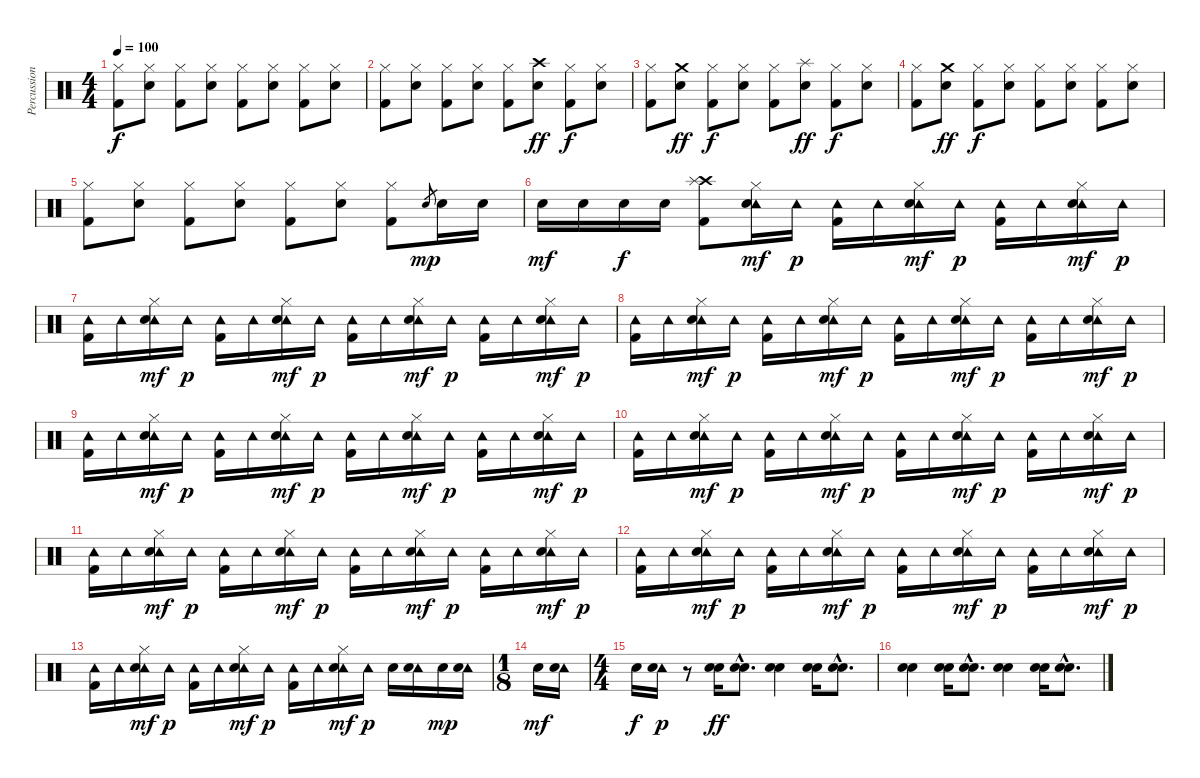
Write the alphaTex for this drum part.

\track ("Percussion" "Percussion") {instrument percussion}
\staff {score}
\articulation defaults
\ts (4 4)
\tempo 100
\clef neutral
\ks c
("Hi-Hat (closed)" "Kick (hit) 2").8{dy f} ("Hi-Hat (closed)" "Electric Snare (hit)").8 ("Hi-Hat (closed)" "Kick (hit) 2").8 ("Hi-Hat (closed)" "Electric Snare (hit)").8 ("Hi-Hat (closed)" "Kick (hit) 2").8 ("Hi-Hat (closed)" "Electric Snare (hit)").8 ("Hi-Hat (closed)" "Kick (hit) 2").8 ("Hi-Hat (closed)" "Electric Snare (hit)").8 |
("Hi-Hat (closed)" "Kick (hit) 2").8 ("Hi-Hat (closed)" "Electric Snare (hit)").8 ("Hi-Hat (closed)" "Kick (hit) 2").8 ("Hi-Hat (closed)" "Electric Snare (hit)").8 ("Hi-Hat (closed)" "Kick (hit) 2").8 ("Crash high (hit)" "Electric Snare (hit)").8{dy ff} ("Hi-Hat (closed)" "Kick (hit) 2").8{dy f} ("Hi-Hat (closed)" "Electric Snare (hit)").8 |
("Hi-Hat (closed)" "Kick (hit) 2").8 ("Crash medium (hit)" "Electric Snare (hit)").8{dy ff} ("Hi-Hat (closed)" "Kick (hit) 2").8{dy f} ("Hi-Hat (closed)" "Electric Snare (hit)").8 ("Hi-Hat (closed)" "Kick (hit) 2").8 ("Splash (hit)" "Electric Snare (hit)").8{dy ff} ("Hi-Hat (closed)" "Kick (hit) 2").8{dy f} ("Hi-Hat (closed)" "Electric Snare (hit)").8 |
("Hi-Hat (closed)" "Kick (hit) 2").8 ("Crash medium (hit)" "Electric Snare (hit)").8{dy ff} ("Hi-Hat (closed)" "Kick (hit) 2").8{dy f} ("Hi-Hat (closed)" "Electric Snare (hit)").8 ("Hi-Hat (closed)" "Kick (hit) 2").8 ("Hi-Hat (closed)" "Electric Snare (hit)").8 ("Hi-Hat (closed)" "Kick (hit) 2").8 ("Hi-Hat (closed)" "Electric Snare (hit)").8 |
("Hi-Hat (closed)" "Kick (hit) 2").8 ("Hi-Hat (closed)" "Electric Snare (hit)").8 ("Hi-Hat (closed)" "Kick (hit) 2").8 ("Hi-Hat (closed)" "Electric Snare (hit)").8 ("Hi-Hat (closed)" "Kick (hit) 2").8 ("Hi-Hat (closed)" "Electric Snare (hit)").8 ("Hi-Hat (closed)" "Kick (hit) 2").8 "Electric Snare (hit)".8{gr dy mp} "Electric Snare (hit)".16 "Electric Snare (hit)".16 |
"Electric Snare (hit)".16{dy mf} "Electric Snare (hit)".16 "Electric Snare (hit)".16{dy f} "Electric Snare (hit)".16 ("Crash high (hit)" "Splash (hit)" "Kick (hit) 2").8 ("Tambourine (hit)" "Hi-Hat (closed)" "Electric Snare (hit)").16{dy mf} "Tambourine (hit)".16{dy p} ("Tambourine (hit)" "Kick (hit) 2").16 "Tambourine (hit)".16 ("Tambourine (hit)" "Hi-Hat (closed)" "Electric Snare (hit)").16{dy mf} "Tambourine (hit)".16{dy p} ("Tambourine (hit)" "Kick (hit) 2").16 "Tambourine (hit)".16 ("Tambourine (hit)" "Hi-Hat (closed)" "Electric Snare (hit)").16{dy mf} "Tambourine (hit)".16{dy p} |
("Tambourine (hit)" "Kick (hit) 2").16 "Tambourine (hit)".16 ("Tambourine (hit)" "Hi-Hat (closed)" "Electric Snare (hit)").16{dy mf} "Tambourine (hit)".16{dy p} ("Tambourine (hit)" "Kick (hit) 2").16 "Tambourine (hit)".16 ("Tambourine (hit)" "Hi-Hat (closed)" "Electric Snare (hit)").16{dy mf} "Tambourine (hit)".16{dy p} ("Tambourine (hit)" "Kick (hit) 2").16 "Tambourine (hit)".16 ("Tambourine (hit)" "Hi-Hat (closed)" "Electric Snare (hit)").16{dy mf} "Tambourine (hit)".16{dy p} ("Tambourine (hit)" "Kick (hit) 2").16 "Tambourine (hit)".16 ("Tambourine (hit)" "Hi-Hat (closed)" "Electric Snare (hit)").16{dy mf} "Tambourine (hit)".16{dy p} |
("Tambourine (hit)" "Kick (hit) 2").16 "Tambourine (hit)".16 ("Tambourine (hit)" "Hi-Hat (closed)" "Electric Snare (hit)").16{dy mf} "Tambourine (hit)".16{dy p} ("Tambourine (hit)" "Kick (hit) 2").16 "Tambourine (hit)".16 ("Tambourine (hit)" "Hi-Hat (closed)" "Electric Snare (hit)").16{dy mf} "Tambourine (hit)".16{dy p} ("Tambourine (hit)" "Kick (hit) 2").16 "Tambourine (hit)".16 ("Tambourine (hit)" "Hi-Hat (closed)" "Electric Snare (hit)").16{dy mf} "Tambourine (hit)".16{dy p} ("Tambourine (hit)" "Kick (hit) 2").16 "Tambourine (hit)".16 ("Tambourine (hit)" "Hi-Hat (closed)" "Electric Snare (hit)").16{dy mf} "Tambourine (hit)".16{dy p} |
("Tambourine (hit)" "Kick (hit) 2").16 "Tambourine (hit)".16 ("Tambourine (hit)" "Hi-Hat (closed)" "Electric Snare (hit)").16{dy mf} "Tambourine (hit)".16{dy p} ("Tambourine (hit)" "Kick (hit) 2").16 "Tambourine (hit)".16 ("Tambourine (hit)" "Hi-Hat (closed)" "Electric Snare (hit)").16{dy mf} "Tambourine (hit)".16{dy p} ("Tambourine (hit)" "Kick (hit) 2").16 "Tambourine (hit)".16 ("Tambourine (hit)" "Hi-Hat (closed)" "Electric Snare (hit)").16{dy mf} "Tambourine (hit)".16{dy p} ("Tambourine (hit)" "Kick (hit) 2").16 "Tambourine (hit)".16 ("Tambourine (hit)" "Hi-Hat (closed)" "Electric Snare (hit)").16{dy mf} "Tambourine (hit)".16{dy p} |
("Tambourine (hit)" "Kick (hit) 2").16 "Tambourine (hit)".16 ("Tambourine (hit)" "Hi-Hat (closed)" "Electric Snare (hit)").16{dy mf} "Tambourine (hit)".16{dy p} ("Tambourine (hit)" "Kick (hit) 2").16 "Tambourine (hit)".16 ("Tambourine (hit)" "Hi-Hat (closed)" "Electric Snare (hit)").16{dy mf} "Tambourine (hit)".16{dy p} ("Tambourine (hit)" "Kick (hit) 2").16 "Tambourine (hit)".16 ("Tambourine (hit)" "Hi-Hat (closed)" "Electric Snare (hit)").16{dy mf} "Tambourine (hit)".16{dy p} ("Tambourine (hit)" "Kick (hit) 2").16 "Tambourine (hit)".16 ("Tambourine (hit)" "Hi-Hat (closed)" "Electric Snare (hit)").16{dy mf} "Tambourine (hit)".16{dy p} |
("Tambourine (hit)" "Kick (hit) 2").16 "Tambourine (hit)".16 ("Tambourine (hit)" "Hi-Hat (closed)" "Electric Snare (hit)").16{dy mf} "Tambourine (hit)".16{dy p} ("Tambourine (hit)" "Kick (hit) 2").16 "Tambourine (hit)".16 ("Tambourine (hit)" "Hi-Hat (closed)" "Electric Snare (hit)").16{dy mf} "Tambourine (hit)".16{dy p} ("Tambourine (hit)" "Kick (hit) 2").16 "Tambourine (hit)".16 ("Tambourine (hit)" "Hi-Hat (closed)" "Electric Snare (hit)").16{dy mf} "Tambourine (hit)".16{dy p} ("Tambourine (hit)" "Kick (hit) 2").16 "Tambourine (hit)".16 ("Tambourine (hit)" "Hi-Hat (closed)" "Electric Snare (hit)").16{dy mf} "Tambourine (hit)".16{dy p} |
("Tambourine (hit)" "Kick (hit) 2").16 "Tambourine (hit)".16 ("Tambourine (hit)" "Hi-Hat (closed)" "Electric Snare (hit)").16{dy mf} "Tambourine (hit)".16{dy p} ("Tambourine (hit)" "Kick (hit) 2").16 "Tambourine (hit)".16 ("Tambourine (hit)" "Hi-Hat (closed)" "Electric Snare (hit)").16{dy mf} "Tambourine (hit)".16{dy p} ("Tambourine (hit)" "Kick (hit) 2").16 "Tambourine (hit)".16 ("Tambourine (hit)" "Hi-Hat (closed)" "Electric Snare (hit)").16{dy mf} "Tambourine (hit)".16{dy p} ("Tambourine (hit)" "Kick (hit) 2").16 "Tambourine (hit)".16 ("Tambourine (hit)" "Hi-Hat (closed)" "Electric Snare (hit)").16{dy mf} "Tambourine (hit)".16{dy p} |
("Tambourine (hit)" "Kick (hit) 2").16 "Tambourine (hit)".16 ("Tambourine (hit)" "Hi-Hat (closed)" "Electric Snare (hit)").16{dy mf} "Tambourine (hit)".16{dy p} ("Tambourine (hit)" "Kick (hit) 2").16 "Tambourine (hit)".16 ("Tambourine (hit)" "Hi-Hat (closed)" "Electric Snare (hit)").16{dy mf} "Tambourine (hit)".16{dy p} ("Tambourine (hit)" "Kick (hit) 2").16 "Tambourine (hit)".16 ("Tambourine (hit)" "Hi-Hat (closed)" "Electric Snare (hit)").16{dy mf} "Tambourine (hit)".16{dy p} "Electric Snare (hit)".16 ("Tambourine (hit)" "Electric Snare (hit)").16 "Electric Snare (hit)".16{dy mp} ("Tambourine (hit)" "Electric Snare (hit)").16 |
\ts (1 8)
"Electric Snare (hit)".16{dy mf} ("Tambourine (hit)" "Electric Snare (hit)").16 |
\ts (4 4)
"Electric Snare (hit)".16{dy f} ("Tambourine (hit)" "Electric Snare (hit)").16{dy p} r.8 ("Hand Clap (hit)" "Hand Clap (hit)").16{dy ff} ("Hand Clap (hit)"{hac} "Hand Clap (hit)"{hac}).8{d} ("Hand Clap (hit)" "Hand Clap (hit)").4 ("Hand Clap (hit)" "Hand Clap (hit)").16 ("Hand Clap (hit)"{hac} "Hand Clap (hit)"{hac}).8{d} |
("Hand Clap (hit)" "Hand Clap (hit)").4 ("Hand Clap (hit)" "Hand Clap (hit)").16 ("Hand Clap (hit)"{hac} "Hand Clap (hit)"{hac}).8{d} ("Hand Clap (hit)" "Hand Clap (hit)").4 ("Hand Clap (hit)" "Hand Clap (hit)").16 ("Hand Clap (hit)"{hac} "Hand Clap (hit)"{hac}).8{d}
